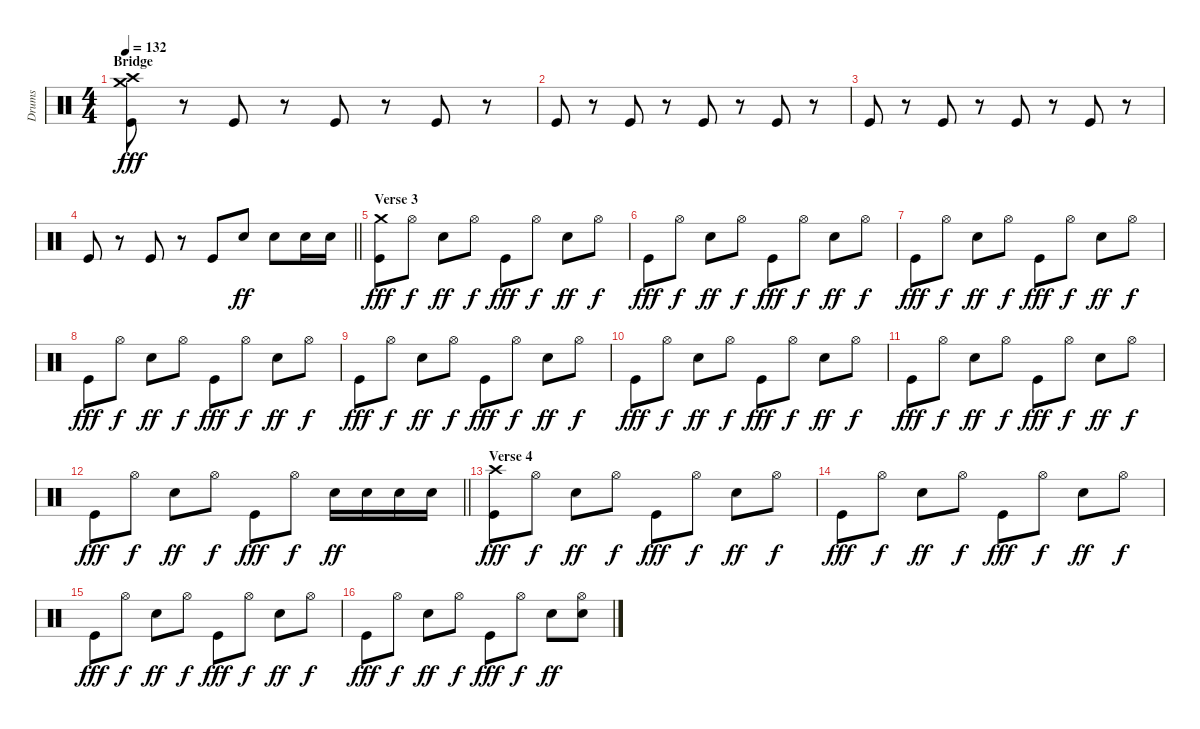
\track ("Drums" "Drums") {instrument percussion}
\staff {score}
\articulation defaults
\ts (4 4)
\section ("" "Bridge")
\tempo 132
\clef neutral
\ks c
("Crash high (hit)" "Crash medium (hit)" "Kick (hit)").8{dy fff} r.8 "Kick (hit)".8 r.8 "Kick (hit)".8 r.8 "Kick (hit)".8 r.8 |
"Kick (hit)".8 r.8 "Kick (hit)".8 r.8 "Kick (hit)".8 r.8 "Kick (hit)".8 r.8 |
"Kick (hit)".8 r.8 "Kick (hit)".8 r.8 "Kick (hit)".8 r.8 "Kick (hit)".8 r.8 |
\barLineRight lightlight "Kick (hit)".8
r.8 "Kick (hit)".8 r.8 "Kick (hit)".8 "Snare (hit) 2".8{dy ff} "Snare (hit) 2".8 "Snare (hit) 2".16 "Snare (hit) 2".16 |
\section ("" "Verse 3")
("Crash medium (hit)" "Kick (hit)").8{dy fff} "Hi-Hat (open)".8{dy f} "Snare (hit) 2".8{dy ff} "Hi-Hat (open)".8{dy f} "Kick (hit)".8{dy fff} "Hi-Hat (open)".8{dy f} "Snare (hit) 2".8{dy ff} "Hi-Hat (open)".8{dy f} |
"Kick (hit)".8{dy fff} "Hi-Hat (open)".8{dy f} "Snare (hit) 2".8{dy ff} "Hi-Hat (open)".8{dy f} "Kick (hit)".8{dy fff} "Hi-Hat (open)".8{dy f} "Snare (hit) 2".8{dy ff} "Hi-Hat (open)".8{dy f} |
"Kick (hit)".8{dy fff} "Hi-Hat (open)".8{dy f} "Snare (hit) 2".8{dy ff} "Hi-Hat (open)".8{dy f} "Kick (hit)".8{dy fff} "Hi-Hat (open)".8{dy f} "Snare (hit) 2".8{dy ff} "Hi-Hat (open)".8{dy f} |
"Kick (hit)".8{dy fff} "Hi-Hat (open)".8{dy f} "Snare (hit) 2".8{dy ff} "Hi-Hat (open)".8{dy f} "Kick (hit)".8{dy fff} "Hi-Hat (open)".8{dy f} "Snare (hit) 2".8{dy ff} "Hi-Hat (open)".8{dy f} |
"Kick (hit)".8{dy fff} "Hi-Hat (open)".8{dy f} "Snare (hit) 2".8{dy ff} "Hi-Hat (open)".8{dy f} "Kick (hit)".8{dy fff} "Hi-Hat (open)".8{dy f} "Snare (hit) 2".8{dy ff} "Hi-Hat (open)".8{dy f} |
"Kick (hit)".8{dy fff} "Hi-Hat (open)".8{dy f} "Snare (hit) 2".8{dy ff} "Hi-Hat (open)".8{dy f} "Kick (hit)".8{dy fff} "Hi-Hat (open)".8{dy f} "Snare (hit) 2".8{dy ff} "Hi-Hat (open)".8{dy f} |
"Kick (hit)".8{dy fff} "Hi-Hat (open)".8{dy f} "Snare (hit) 2".8{dy ff} "Hi-Hat (open)".8{dy f} "Kick (hit)".8{dy fff} "Hi-Hat (open)".8{dy f} "Snare (hit) 2".8{dy ff} "Hi-Hat (open)".8{dy f} |
\barLineRight lightlight "Kick (hit)".8{dy fff} "Hi-Hat (open)".8{dy f} "Snare (hit) 2".8{dy ff} "Hi-Hat (open)".8{dy f} "Kick (hit)".8{dy fff} "Hi-Hat (open)".8{dy f} "Snare (hit) 2".16{dy ff} "Snare (hit) 2".16 "Snare (hit) 2".16 "Snare (hit) 2".16
|
\section ("" "Verse 4")
("Crash high (hit)" "Kick (hit)").8{dy fff} "Hi-Hat (open)".8{dy f} "Snare (hit) 2".8{dy ff} "Hi-Hat (open)".8{dy f} "Kick (hit)".8{dy fff} "Hi-Hat (open)".8{dy f} "Snare (hit) 2".8{dy ff} "Hi-Hat (open)".8{dy f} |
"Kick (hit)".8{dy fff} "Hi-Hat (open)".8{dy f} "Snare (hit) 2".8{dy ff} "Hi-Hat (open)".8{dy f} "Kick (hit)".8{dy fff} "Hi-Hat (open)".8{dy f} "Snare (hit) 2".8{dy ff} "Hi-Hat (open)".8{dy f} |
"Kick (hit)".8{dy fff} "Hi-Hat (open)".8{dy f} "Snare (hit) 2".8{dy ff} "Hi-Hat (open)".8{dy f} "Kick (hit)".8{dy fff} "Hi-Hat (open)".8{dy f} "Snare (hit) 2".8{dy ff} "Hi-Hat (open)".8{dy f} |
"Kick (hit)".8{dy fff} "Hi-Hat (open)".8{dy f} "Snare (hit) 2".8{dy ff} "Hi-Hat (open)".8{dy f} "Kick (hit)".8{dy fff} "Hi-Hat (open)".8{dy f} "Snare (hit) 2".8{dy ff} ("Hi-Hat (open)" "Snare (hit) 2").8
